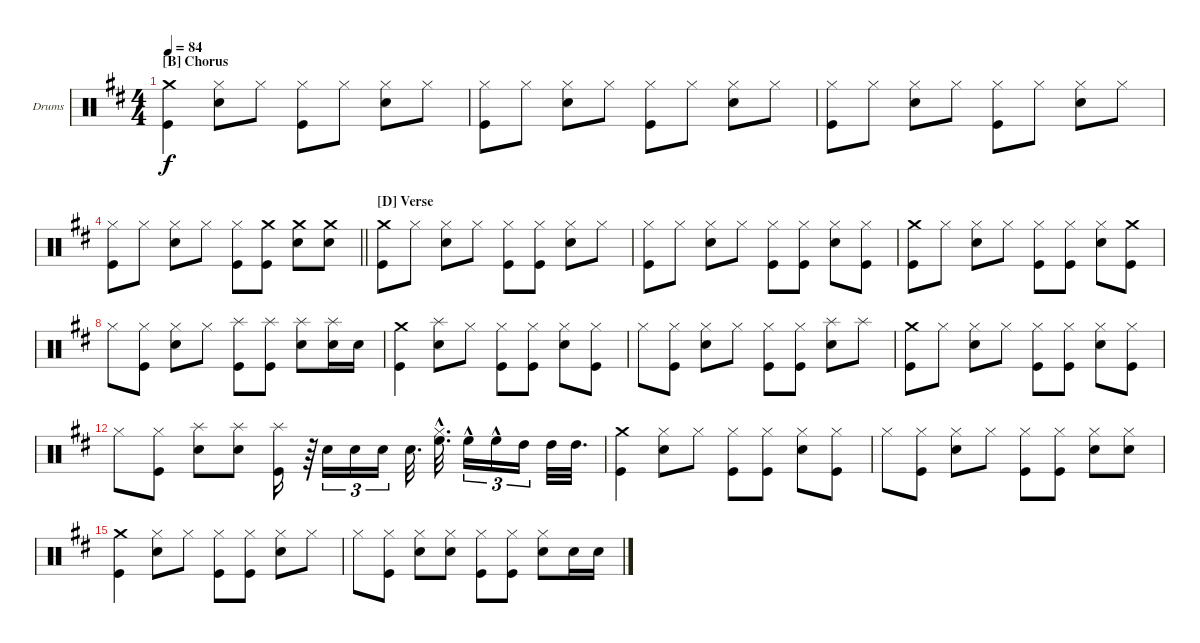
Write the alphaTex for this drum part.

\bracketExtendMode nobrackets
\firstSystemTrackNameOrientation horizontal
\otherSystemsTrackNameOrientation horizontal
\defaultBarNumberDisplay FirstOfSystem
\track ("Drumkit" "Drums") {instrument percussion}
\staff {score}
\articulation defaults
\ts (4 4)
\section ("B" "Chorus")
\tempo 84
\clef neutral
\ks d
("Kick (hit)" "Crash medium (hit)").4{dy f} ("Snare (hit) 2" "Hi-Hat (closed)").8 "Hi-Hat (closed)".8 ("Kick (hit)" "Hi-Hat (closed)").8 "Hi-Hat (closed)".8 ("Snare (hit) 2" "Hi-Hat (closed)").8 "Hi-Hat (closed)".8 |
("Kick (hit)" "Hi-Hat (closed)").8 "Hi-Hat (closed)".8 ("Snare (hit) 2" "Hi-Hat (closed)").8 "Hi-Hat (closed)".8 ("Kick (hit)" "Hi-Hat (closed)").8 "Hi-Hat (closed)".8 ("Snare (hit) 2" "Hi-Hat (closed)").8 "Hi-Hat (closed)".8 |
("Kick (hit)" "Hi-Hat (closed)").8 "Hi-Hat (closed)".8 ("Snare (hit) 2" "Hi-Hat (closed)").8 "Hi-Hat (closed)".8 ("Kick (hit)" "Hi-Hat (closed)").8 "Hi-Hat (closed)".8 ("Snare (hit) 2" "Hi-Hat (closed)").8 "Hi-Hat (closed)".8 |
\barLineRight lightlight
("Kick (hit)" "Hi-Hat (closed)").8 "Hi-Hat (closed)".8 ("Snare (hit) 2" "Hi-Hat (closed)").8 "Hi-Hat (closed)".8 ("Kick (hit)" "Hi-Hat (closed)").8 ("Kick (hit)" "Crash medium (hit)").8 ("Snare (hit) 2" "Crash medium (hit)").8 ("Snare (hit) 2" "Crash medium (hit)").8 |
\section ("D" "Verse")
("Kick (hit)" "Crash medium (hit)").8 "Hi-Hat (closed)".8 ("Snare (hit) 2" "Hi-Hat (closed)").8 "Hi-Hat (closed)".8 ("Kick (hit)" "Hi-Hat (closed)").8 ("Kick (hit)" "Hi-Hat (closed)").8 ("Snare (hit) 2" "Hi-Hat (closed)").8 "Hi-Hat (closed)".8 |
("Kick (hit)" "Hi-Hat (closed)").8 "Hi-Hat (closed)".8 ("Snare (hit) 2" "Hi-Hat (closed)").8 "Hi-Hat (closed)".8 ("Kick (hit)" "Hi-Hat (closed)").8 ("Kick (hit)" "Hi-Hat (closed)").8 ("Snare (hit) 2" "Hi-Hat (closed)").8 ("Kick (hit)" "Hi-Hat (closed)").8 |
("Kick (hit)" "Crash medium (hit)").8 "Hi-Hat (closed)".8 ("Snare (hit) 2" "Hi-Hat (closed)").8 "Hi-Hat (closed)".8 ("Kick (hit)" "Hi-Hat (closed)").8 ("Kick (hit)" "Hi-Hat (closed)").8 ("Snare (hit) 2" "Hi-Hat (closed)").8 ("Kick (hit)" "Crash medium (hit)").8 |
"Hi-Hat (closed)".8 ("Kick (hit)" "Hi-Hat (closed)").8 ("Snare (hit) 2" "Hi-Hat (closed)").8 "Hi-Hat (closed)".8 ("Kick (hit)" "Splash (hit)").8 ("Kick (hit)" "Splash (hit)").8 ("Snare (hit) 2" "Splash (hit)").8 ("Snare (hit) 2" "Splash (hit)").16 "Snare (hit) 2".16 |
("Kick (hit)" "Crash medium (hit)").4 ("Snare (hit) 2" "Splash (hit)").8 "Hi-Hat (closed)".8 ("Kick (hit)" "Hi-Hat (closed)").8 ("Kick (hit)" "Hi-Hat (closed)").8 ("Snare (hit) 2" "Hi-Hat (closed)").8 ("Kick (hit)" "Hi-Hat (closed)").8 |
"Hi-Hat (closed)".8 ("Kick (hit)" "Hi-Hat (closed)").8 ("Snare (hit) 2" "Hi-Hat (closed)").8 "Hi-Hat (closed)".8 ("Kick (hit)" "Hi-Hat (closed)").8 ("Kick (hit)" "Hi-Hat (closed)").8 ("Snare (hit) 2" "Splash (hit)").8 "Splash (hit)".8 |
("Kick (hit)" "Crash medium (hit)").8 "Hi-Hat (closed)".8 ("Snare (hit) 2" "Hi-Hat (closed)").8 "Hi-Hat (closed)".8 ("Kick (hit)" "Hi-Hat (closed)").8 ("Kick (hit)" "Hi-Hat (closed)").8 ("Snare (hit) 2" "Hi-Hat (closed)").8 ("Kick (hit)" "Hi-Hat (closed)").8 |
"Hi-Hat (closed)".8 ("Kick (hit)" "Hi-Hat (closed)").8 ("Snare (hit) 2" "Splash (hit)").8 ("Snare (hit) 2" "Splash (hit)").8 ("Kick (hit)" "Splash (hit)").16 r.64 "Snare (hit) 2".16{tu (3 2)} "Snare (hit) 2".16{tu (3 2)} "Snare (hit) 2".16{tu (3 2)} "Snare (hit) 2".32{d} ("High Floor Tom (hit)"{hac} "Hi-Hat (closed)"{hac}).32{d} "High Floor Tom (hit)"{hac}.16{tu (3 2)} "High Floor Tom (hit)"{hac}.16{tu (3 2)} "High Tom (hit)".16{tu (3 2)} "High Tom (hit)".32 "High Tom (hit)".32{d} |
("Kick (hit)" "Crash medium (hit)").4 ("Snare (hit) 2" "Hi-Hat (closed)").8 "Hi-Hat (closed)".8 ("Kick (hit)" "Hi-Hat (closed)").8 ("Kick (hit)" "Hi-Hat (closed)").8 ("Snare (hit) 2" "Hi-Hat (closed)").8 ("Kick (hit)" "Hi-Hat (closed)").8 |
"Hi-Hat (closed)".8 ("Kick (hit)" "Hi-Hat (closed)").8 ("Snare (hit) 2" "Hi-Hat (closed)").8 "Hi-Hat (closed)".8 ("Kick (hit)" "Hi-Hat (closed)").8 ("Kick (hit)" "Hi-Hat (closed)").8 ("Snare (hit) 2" "Hi-Hat (closed)").8 ("Snare (hit) 2" "Hi-Hat (closed)").8 |
("Kick (hit)" "Crash medium (hit)").4 ("Snare (hit) 2" "Hi-Hat (closed)").8 "Hi-Hat (closed)".8 ("Kick (hit)" "Hi-Hat (closed)").8 ("Kick (hit)" "Hi-Hat (closed)").8 ("Snare (hit) 2" "Hi-Hat (closed)").8 "Hi-Hat (closed)".8 |
"Hi-Hat (closed)".8 ("Kick (hit)" "Hi-Hat (closed)").8 ("Snare (hit) 2" "Hi-Hat (closed)").8 ("Snare (hit) 2" "Hi-Hat (closed)").8 ("Kick (hit)" "Hi-Hat (closed)").8 ("Kick (hit)" "Hi-Hat (closed)").8 ("Snare (hit) 2" "Hi-Hat (closed)").8 "Snare (hit) 2".16 "Snare (hit) 2".16
